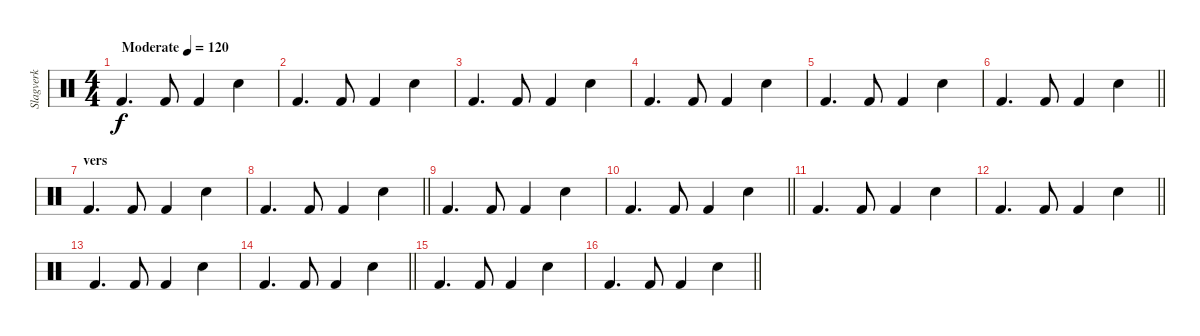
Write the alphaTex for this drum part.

\track ("Slagverk" "Slagverk") {instrument percussion}
\staff {score}
\articulation defaults
\ts (4 4)
\tempo (120 "Moderate")
\clef neutral
\ks c "Kick (hit) 2".4{d dy f} "Kick (hit) 2".8 "Kick (hit) 2".4 "Snare (hit) 2".4
|
"Kick (hit) 2".4{d} "Kick (hit) 2".8 "Kick (hit) 2".4 "Snare (hit) 2".4 |
"Kick (hit) 2".4{d} "Kick (hit) 2".8 "Kick (hit) 2".4 "Snare (hit) 2".4 |
"Kick (hit) 2".4{d} "Kick (hit) 2".8 "Kick (hit) 2".4 "Snare (hit) 2".4 |
"Kick (hit) 2".4{d} "Kick (hit) 2".8 "Kick (hit) 2".4 "Snare (hit) 2".4 |
\barLineRight lightlight "Kick (hit) 2".4{d} "Kick (hit) 2".8 "Kick (hit) 2".4 "Snare (hit) 2".4
|
\section ("" "vers")
"Kick (hit) 2".4{d} "Kick (hit) 2".8 "Kick (hit) 2".4 "Snare (hit) 2".4 |
\barLineRight lightlight "Kick (hit) 2".4{d} "Kick (hit) 2".8 "Kick (hit) 2".4 "Snare (hit) 2".4
|
"Kick (hit) 2".4{d} "Kick (hit) 2".8 "Kick (hit) 2".4 "Snare (hit) 2".4 |
\barLineRight lightlight "Kick (hit) 2".4{d} "Kick (hit) 2".8 "Kick (hit) 2".4 "Snare (hit) 2".4
|
"Kick (hit) 2".4{d} "Kick (hit) 2".8 "Kick (hit) 2".4 "Snare (hit) 2".4 |
\barLineRight lightlight "Kick (hit) 2".4{d} "Kick (hit) 2".8 "Kick (hit) 2".4 "Snare (hit) 2".4
|
"Kick (hit) 2".4{d} "Kick (hit) 2".8 "Kick (hit) 2".4 "Snare (hit) 2".4 |
\barLineRight lightlight "Kick (hit) 2".4{d} "Kick (hit) 2".8 "Kick (hit) 2".4 "Snare (hit) 2".4
|
"Kick (hit) 2".4{d} "Kick (hit) 2".8 "Kick (hit) 2".4 "Snare (hit) 2".4 |
\barLineRight lightlight "Kick (hit) 2".4{d} "Kick (hit) 2".8 "Kick (hit) 2".4 "Snare (hit) 2".4
